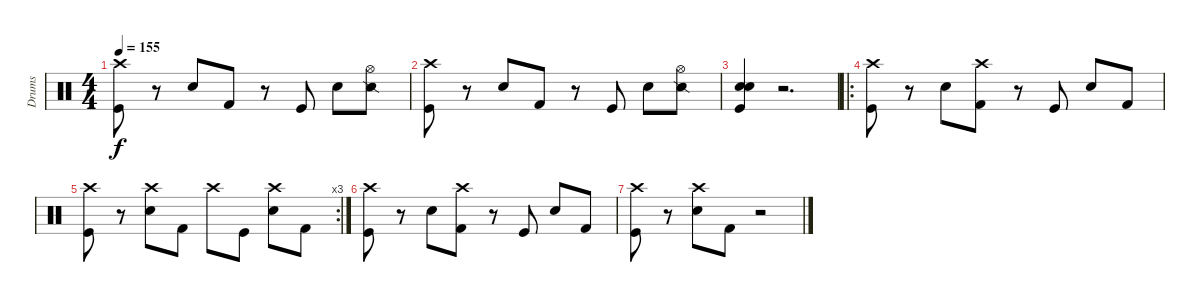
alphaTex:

\track ("Drums" "Drums") {instrument percussion}
\staff {score}
\articulation defaults
\ts (4 4)
\tempo 155
\clef neutral
\ks c
("Kick (hit)" "Crash high (hit)").8{dy f} r.8 "Snare (hit) 2".8 "Kick (hit) 2".8 r.8 "Kick (hit)".8 "Snare (hit) 2".8 ("Snare (side stick) 2" "Hi-Hat (open)").8 |
("Kick (hit)" "Crash high (hit)").8 r.8 "Snare (hit) 2".8 "Kick (hit) 2".8 r.8 "Kick (hit)".8 "Snare (hit) 2".8 ("Snare (side stick) 2" "Hi-Hat (open)").8 |
("Kick (hit)" "Snare (hit) 2" "Electric Snare (hit)").4 r.2{d} |
\ro
("Kick (hit)" "Crash high (hit)").8 r.8 "Snare (hit) 2".8 ("Kick (hit) 2" "Crash high (hit)").8 r.8 "Kick (hit)".8 "Snare (hit) 2".8 "Kick (hit) 2".8 |
\rc 3
("Kick (hit)" "Crash high (hit)").8 r.8 ("Snare (hit) 2" "Crash high (hit)").8 "Kick (hit) 2".8 "Crash high (hit)".8 "Kick (hit)".8 ("Snare (hit) 2" "Crash high (hit)").8 "Kick (hit) 2".8 |
("Kick (hit)" "Crash high (hit)").8 r.8 "Snare (hit) 2".8 ("Kick (hit) 2" "Crash high (hit)").8 r.8 "Kick (hit)".8 "Snare (hit) 2".8 "Kick (hit) 2".8 |
("Kick (hit)" "Crash high (hit)").8 r.8 ("Snare (hit) 2" "Crash high (hit)").8 "Kick (hit) 2".8 r.2
